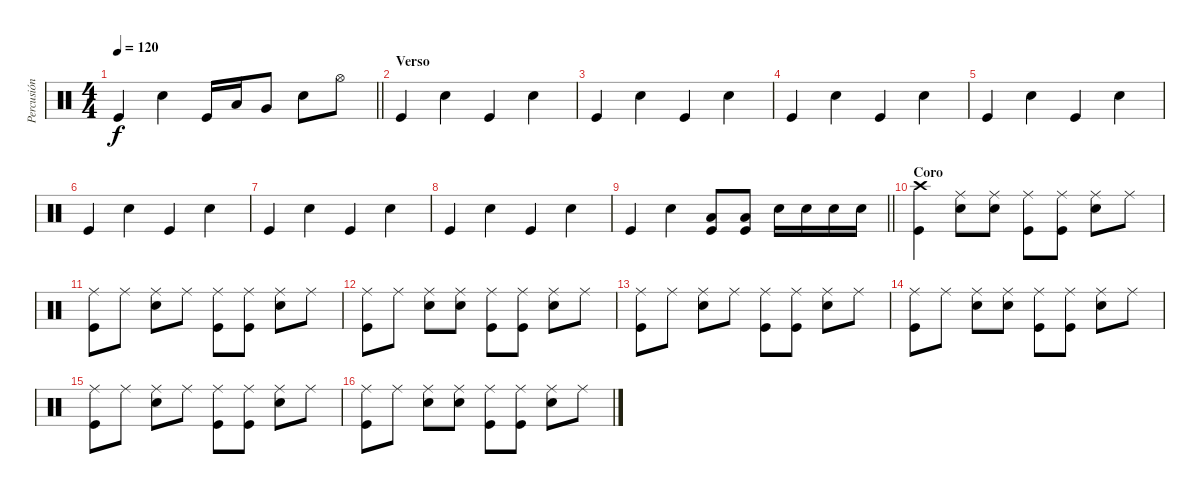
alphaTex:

\track ("Percusión" "Percusión") {instrument percussion}
\staff {score}
\articulation defaults
\ts (4 4)
\tempo 120
\clef neutral
\barLineRight lightlight
\ks c "Kick (hit)".4{dy f} "Snare (hit) 2".4 "Kick (hit)".16 "Low Tom (hit)".16 "Very Low Tom (hit)".8 "Snare (hit) 2".8 "Hi-Hat (open)".8
|
\section ("" "Verso")
"Kick (hit)".4 "Snare (hit) 2".4 "Kick (hit)".4 "Snare (hit) 2".4 |
"Kick (hit)".4 "Snare (hit) 2".4 "Kick (hit)".4 "Snare (hit) 2".4 |
"Kick (hit)".4 "Snare (hit) 2".4 "Kick (hit)".4 "Snare (hit) 2".4 |
"Kick (hit)".4 "Snare (hit) 2".4 "Kick (hit)".4 "Snare (hit) 2".4 |
"Kick (hit)".4 "Snare (hit) 2".4 "Kick (hit)".4 "Snare (hit) 2".4 |
"Kick (hit)".4 "Snare (hit) 2".4 "Kick (hit)".4 "Snare (hit) 2".4 |
"Kick (hit)".4 "Snare (hit) 2".4 "Kick (hit)".4 "Snare (hit) 2".4 |
\barLineRight lightlight "Kick (hit)".4 "Snare (hit) 2".4
("Kick (hit)" "Low Tom (hit)").8 ("Kick (hit)" "Low Tom (hit)").8 "Snare (hit) 2".16 "Snare (hit) 2".16 "Snare (hit) 2".16 "Snare (hit) 2".16 |
\section ("" "Coro")
("Crash high (hit)" "Kick (hit)").4 ("Ride (middle)" "Snare (hit) 2").8 ("Ride (middle)" "Snare (hit) 2").8 ("Ride (middle)" "Kick (hit)").8 ("Ride (middle)" "Kick (hit)").8 ("Ride (middle)" "Snare (hit) 2").8 "Ride (middle)".8 |
("Ride (middle)" "Kick (hit)").8 "Ride (middle)".8 ("Ride (middle)" "Snare (hit) 2").8 "Ride (middle)".8 ("Ride (middle)" "Kick (hit)").8 ("Ride (middle)" "Kick (hit)").8 ("Ride (middle)" "Snare (hit) 2").8 "Ride (middle)".8 |
("Ride (middle)" "Kick (hit)").8 "Ride (middle)".8 ("Ride (middle)" "Snare (hit) 2").8 ("Ride (middle)" "Snare (hit) 2").8 ("Ride (middle)" "Kick (hit)").8 ("Ride (middle)" "Kick (hit)").8 ("Ride (middle)" "Snare (hit) 2").8 "Ride (middle)".8 |
("Ride (middle)" "Kick (hit)").8 "Ride (middle)".8 ("Ride (middle)" "Snare (hit) 2").8 "Ride (middle)".8 ("Ride (middle)" "Kick (hit)").8 ("Ride (middle)" "Kick (hit)").8 ("Ride (middle)" "Snare (hit) 2").8 "Ride (middle)".8 |
("Ride (middle)" "Kick (hit)").8 "Ride (middle)".8 ("Ride (middle)" "Snare (hit) 2").8 ("Ride (middle)" "Snare (hit) 2").8 ("Ride (middle)" "Kick (hit)").8 ("Ride (middle)" "Kick (hit)").8 ("Ride (middle)" "Snare (hit) 2").8 "Ride (middle)".8 |
("Ride (middle)" "Kick (hit)").8 "Ride (middle)".8 ("Ride (middle)" "Snare (hit) 2").8 "Ride (middle)".8 ("Ride (middle)" "Kick (hit)").8 ("Ride (middle)" "Kick (hit)").8 ("Ride (middle)" "Snare (hit) 2").8 "Ride (middle)".8 |
("Ride (middle)" "Kick (hit)").8 "Ride (middle)".8 ("Ride (middle)" "Snare (hit) 2").8 ("Ride (middle)" "Snare (hit) 2").8 ("Ride (middle)" "Kick (hit)").8 ("Ride (middle)" "Kick (hit)").8 ("Ride (middle)" "Snare (hit) 2").8 "Ride (middle)".8
